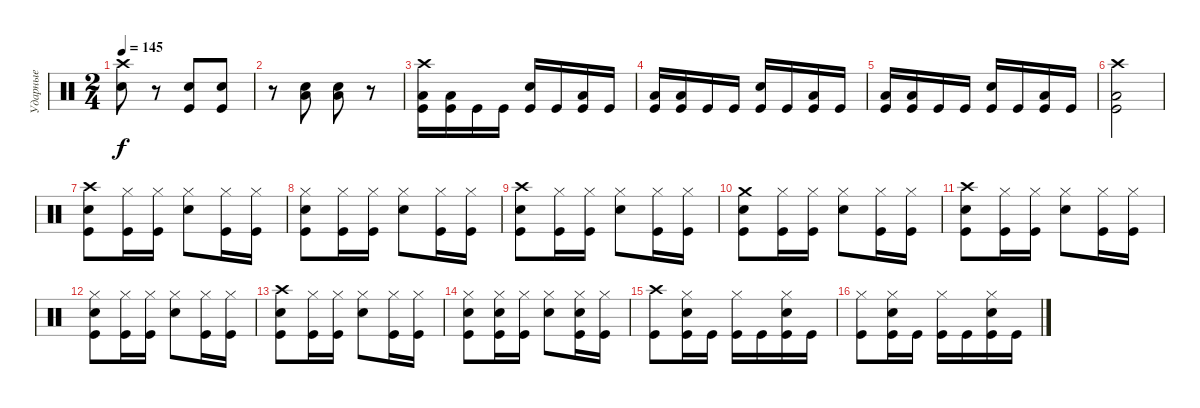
\track ("Ударные" "Ударные") {instrument percussion}
\staff {score}
\articulation defaults
\ts (2 4)
\tempo 145
\clef neutral
\ks c
("Crash high (hit)" "Electric Snare (hit)").8{dy f} r.8 ("Kick (hit)" "Electric Snare (hit)").8 ("Kick (hit)" "Electric Snare (hit)").8 |
r.8 ("Low Tom (hit)" "Electric Snare (hit)").8 ("Low Tom (hit)" "Electric Snare (hit)").8 r.8 |
("Crash high (hit)" "Low Tom (hit)" "Kick (hit)").16 ("Low Tom (hit)" "Kick (hit)").16 "Kick (hit)".16 "Kick (hit)".16 ("Electric Snare (hit)" "Kick (hit)").16 "Kick (hit)".16 ("Low Tom (hit)" "Kick (hit)").16 "Kick (hit)".16 |
("Low Tom (hit)" "Kick (hit)").16 ("Low Tom (hit)" "Kick (hit)").16 "Kick (hit)".16 "Kick (hit)".16 ("Electric Snare (hit)" "Kick (hit)").16 "Kick (hit)".16 ("Low Tom (hit)" "Kick (hit)").16 "Kick (hit)".16 |
("Low Tom (hit)" "Kick (hit)").16 ("Low Tom (hit)" "Kick (hit)").16 "Kick (hit)".16 "Kick (hit)".16 ("Electric Snare (hit)" "Kick (hit)").16 "Kick (hit)".16 ("Low Tom (hit)" "Kick (hit)").16 "Kick (hit)".16 |
("Crash high (hit)" "Low Tom (hit)" "Kick (hit)").2 |
("Crash high (hit)" "Electric Snare (hit)" "Kick (hit)").8 ("Hi-Hat (closed)" "Kick (hit)").16 ("Hi-Hat (closed)" "Kick (hit)").16 ("Hi-Hat (closed)" "Electric Snare (hit)").8 ("Hi-Hat (closed)" "Kick (hit)").16 ("Hi-Hat (closed)" "Kick (hit)").16 |
("Hi-Hat (closed)" "Electric Snare (hit)" "Kick (hit)").8 ("Hi-Hat (closed)" "Kick (hit)").16 ("Hi-Hat (closed)" "Kick (hit)").16 ("Hi-Hat (closed)" "Electric Snare (hit)").8 ("Hi-Hat (closed)" "Kick (hit)").16 ("Hi-Hat (closed)" "Kick (hit)").16 |
("Crash high (hit)" "Electric Snare (hit)" "Kick (hit)").8 ("Hi-Hat (closed)" "Kick (hit)").16 ("Hi-Hat (closed)" "Kick (hit)").16 ("Hi-Hat (closed)" "Electric Snare (hit)").8 ("Hi-Hat (closed)" "Kick (hit)").16 ("Hi-Hat (closed)" "Kick (hit)").16 |
("Crash medium (hit)" "Electric Snare (hit)" "Kick (hit)").8 ("Hi-Hat (closed)" "Kick (hit)").16 ("Hi-Hat (closed)" "Kick (hit)").16 ("Hi-Hat (closed)" "Electric Snare (hit)").8 ("Hi-Hat (closed)" "Kick (hit)").16 ("Hi-Hat (closed)" "Kick (hit)").16 |
("Crash high (hit)" "Electric Snare (hit)" "Kick (hit)").8 ("Hi-Hat (closed)" "Kick (hit)").16 ("Hi-Hat (closed)" "Kick (hit)").16 ("Hi-Hat (closed)" "Electric Snare (hit)").8 ("Hi-Hat (closed)" "Kick (hit)").16 ("Hi-Hat (closed)" "Kick (hit)").16 |
("Hi-Hat (closed)" "Electric Snare (hit)" "Kick (hit)").8 ("Hi-Hat (closed)" "Kick (hit)").16 ("Hi-Hat (closed)" "Kick (hit)").16 ("Hi-Hat (closed)" "Electric Snare (hit)").8 ("Hi-Hat (closed)" "Kick (hit)").16 ("Hi-Hat (closed)" "Kick (hit)").16 |
("Crash high (hit)" "Electric Snare (hit)" "Kick (hit)").8 ("Hi-Hat (closed)" "Kick (hit)").16 ("Hi-Hat (closed)" "Kick (hit)").16 ("Hi-Hat (closed)" "Electric Snare (hit)").8 ("Hi-Hat (closed)" "Kick (hit)").16 ("Hi-Hat (closed)" "Kick (hit)").16 |
("Hi-Hat (closed)" "Electric Snare (hit)" "Kick (hit)").8 ("Hi-Hat (closed)" "Electric Snare (hit)" "Kick (hit)").16 ("Hi-Hat (closed)" "Kick (hit)").16 ("Hi-Hat (closed)" "Electric Snare (hit)").8 ("Hi-Hat (closed)" "Electric Snare (hit)" "Kick (hit)").16 ("Hi-Hat (closed)" "Kick (hit)").16 |
("Crash high (hit)" "Kick (hit)").8 ("Hi-Hat (closed)" "Electric Snare (hit)" "Kick (hit)").16 "Kick (hit)".16 ("Hi-Hat (closed)" "Kick (hit)").16 "Kick (hit)".16 ("Hi-Hat (closed)" "Electric Snare (hit)" "Kick (hit)").16 "Kick (hit)".16 |
("Hi-Hat (closed)" "Kick (hit)").8 ("Hi-Hat (closed)" "Electric Snare (hit)" "Kick (hit)").16 "Kick (hit)".16 ("Hi-Hat (closed)" "Kick (hit)").16 "Kick (hit)".16 ("Hi-Hat (closed)" "Electric Snare (hit)" "Kick (hit)").16 "Kick (hit)".16
